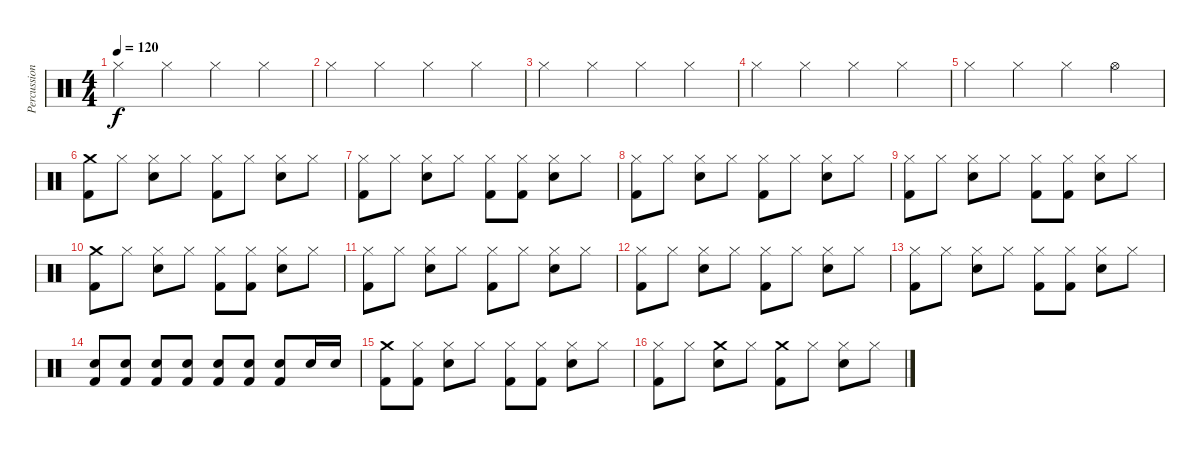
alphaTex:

\track ("Percussions" "Percussion") {instrument percussion}
\staff {score}
\articulation defaults
\ts (4 4)
\tempo 120
\clef neutral
\ks c "Hi-Hat (closed)".4{dy f} "Hi-Hat (closed)".4 "Hi-Hat (closed)".4 "Hi-Hat (closed)".4
|
"Hi-Hat (closed)".4 "Hi-Hat (closed)".4 "Hi-Hat (closed)".4 "Hi-Hat (closed)".4 |
"Hi-Hat (closed)".4 "Hi-Hat (closed)".4 "Hi-Hat (closed)".4 "Hi-Hat (closed)".4 |
"Hi-Hat (closed)".4 "Hi-Hat (closed)".4 "Hi-Hat (closed)".4 "Hi-Hat (closed)".4 |
"Hi-Hat (closed)".4 "Hi-Hat (closed)".4 "Hi-Hat (closed)".4 "Hi-Hat (open)".4 |
("Crash medium (hit)" "Kick (hit) 2").8 "Hi-Hat (closed)".8 ("Hi-Hat (closed)" "Electric Snare (hit)").8 "Hi-Hat (closed)".8 ("Hi-Hat (closed)" "Kick (hit) 2").8 "Hi-Hat (closed)".8 ("Hi-Hat (closed)" "Electric Snare (hit)").8 "Hi-Hat (closed)".8 |
("Hi-Hat (closed)" "Kick (hit) 2").8 "Hi-Hat (closed)".8 ("Hi-Hat (closed)" "Electric Snare (hit)").8 "Hi-Hat (closed)".8 ("Hi-Hat (closed)" "Kick (hit) 2").8 ("Hi-Hat (closed)" "Kick (hit) 2").8 ("Hi-Hat (closed)" "Electric Snare (hit)").8 "Hi-Hat (closed)".8 |
("Hi-Hat (closed)" "Kick (hit) 2").8 "Hi-Hat (closed)".8 ("Hi-Hat (closed)" "Electric Snare (hit)").8 "Hi-Hat (closed)".8 ("Hi-Hat (closed)" "Kick (hit) 2").8 "Hi-Hat (closed)".8 ("Hi-Hat (closed)" "Electric Snare (hit)").8 "Hi-Hat (closed)".8 |
("Hi-Hat (closed)" "Kick (hit) 2").8 "Hi-Hat (closed)".8 ("Hi-Hat (closed)" "Electric Snare (hit)").8 "Hi-Hat (closed)".8 ("Hi-Hat (closed)" "Kick (hit) 2").8 ("Hi-Hat (closed)" "Kick (hit) 2").8 ("Hi-Hat (closed)" "Electric Snare (hit)").8 "Hi-Hat (closed)".8 |
("Crash medium (hit)" "Kick (hit) 2").8 "Hi-Hat (closed)".8 ("Hi-Hat (closed)" "Electric Snare (hit)").8 "Hi-Hat (closed)".8 ("Hi-Hat (closed)" "Kick (hit) 2").8 ("Hi-Hat (closed)" "Kick (hit) 2").8 ("Hi-Hat (closed)" "Electric Snare (hit)").8 "Hi-Hat (closed)".8 |
("Hi-Hat (closed)" "Kick (hit) 2").8 "Hi-Hat (closed)".8 ("Hi-Hat (closed)" "Electric Snare (hit)").8 "Hi-Hat (closed)".8 ("Hi-Hat (closed)" "Kick (hit) 2").8 "Hi-Hat (closed)".8 ("Hi-Hat (closed)" "Electric Snare (hit)").8 "Hi-Hat (closed)".8 |
("Hi-Hat (closed)" "Kick (hit) 2").8 "Hi-Hat (closed)".8 ("Hi-Hat (closed)" "Electric Snare (hit)").8 "Hi-Hat (closed)".8 ("Hi-Hat (closed)" "Kick (hit) 2").8 "Hi-Hat (closed)".8 ("Hi-Hat (closed)" "Electric Snare (hit)").8 "Hi-Hat (closed)".8 |
("Hi-Hat (closed)" "Kick (hit) 2").8 "Hi-Hat (closed)".8 ("Hi-Hat (closed)" "Electric Snare (hit)").8 "Hi-Hat (closed)".8 ("Hi-Hat (closed)" "Kick (hit) 2").8 ("Hi-Hat (closed)" "Kick (hit) 2").8 ("Hi-Hat (closed)" "Electric Snare (hit)").8 "Hi-Hat (closed)".8 |
("Electric Snare (hit)" "Kick (hit) 2").8 ("Electric Snare (hit)" "Kick (hit) 2").8 ("Electric Snare (hit)" "Kick (hit) 2").8 ("Electric Snare (hit)" "Kick (hit) 2").8 ("Electric Snare (hit)" "Kick (hit) 2").8 ("Electric Snare (hit)" "Kick (hit) 2").8 ("Electric Snare (hit)" "Kick (hit) 2").8 "Electric Snare (hit)".16 "Electric Snare (hit)".16 |
("Crash medium (hit)" "Kick (hit) 2").8 ("Hi-Hat (closed)" "Kick (hit) 2").8 ("Hi-Hat (closed)" "Electric Snare (hit)").8 "Hi-Hat (closed)".8 ("Hi-Hat (closed)" "Kick (hit) 2").8 ("Hi-Hat (closed)" "Kick (hit) 2").8 ("Hi-Hat (closed)" "Electric Snare (hit)").8 "Hi-Hat (closed)".8 |
("Hi-Hat (closed)" "Kick (hit) 2").8 "Hi-Hat (closed)".8 ("Crash medium (hit)" "Electric Snare (hit)").8 "Hi-Hat (closed)".8 ("Crash medium (hit)" "Kick (hit) 2").8 "Hi-Hat (closed)".8 ("Hi-Hat (closed)" "Electric Snare (hit)").8 "Hi-Hat (closed)".8
